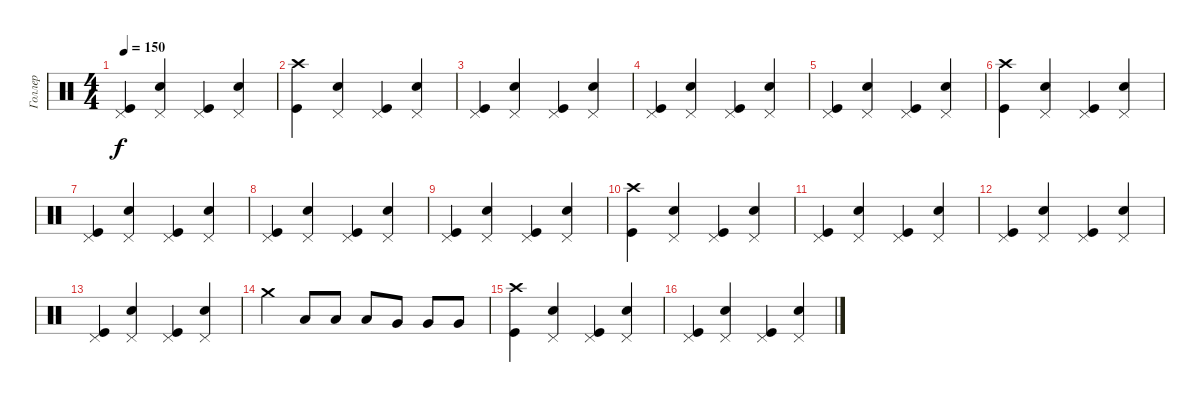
\track ("Голлер" "Голлер") {instrument percussion}
\staff {score}
\articulation defaults
\ts (4 4)
\tempo 150
\clef neutral
\ks c
("Pedal Hi-Hat (hit)" "Kick (hit)").4{dy f} ("Pedal Hi-Hat (hit)" "Snare (hit) 2").4 ("Pedal Hi-Hat (hit)" "Kick (hit)").4 ("Pedal Hi-Hat (hit)" "Snare (hit) 2").4 |
("Crash high (hit)" "Kick (hit)").4 ("Pedal Hi-Hat (hit)" "Snare (hit) 2").4 ("Pedal Hi-Hat (hit)" "Kick (hit)").4 ("Pedal Hi-Hat (hit)" "Snare (hit) 2").4 |
("Pedal Hi-Hat (hit)" "Kick (hit)").4 ("Pedal Hi-Hat (hit)" "Snare (hit) 2").4 ("Pedal Hi-Hat (hit)" "Kick (hit)").4 ("Pedal Hi-Hat (hit)" "Snare (hit) 2").4 |
("Pedal Hi-Hat (hit)" "Kick (hit)").4 ("Pedal Hi-Hat (hit)" "Snare (hit) 2").4 ("Pedal Hi-Hat (hit)" "Kick (hit)").4 ("Pedal Hi-Hat (hit)" "Snare (hit) 2").4 |
("Pedal Hi-Hat (hit)" "Kick (hit)").4 ("Pedal Hi-Hat (hit)" "Snare (hit) 2").4 ("Pedal Hi-Hat (hit)" "Kick (hit)").4 ("Pedal Hi-Hat (hit)" "Snare (hit) 2").4 |
("Crash high (hit)" "Kick (hit)").4 ("Pedal Hi-Hat (hit)" "Snare (hit) 2").4 ("Pedal Hi-Hat (hit)" "Kick (hit)").4 ("Pedal Hi-Hat (hit)" "Snare (hit) 2").4 |
("Pedal Hi-Hat (hit)" "Kick (hit)").4 ("Pedal Hi-Hat (hit)" "Snare (hit) 2").4 ("Pedal Hi-Hat (hit)" "Kick (hit)").4 ("Pedal Hi-Hat (hit)" "Snare (hit) 2").4 |
("Pedal Hi-Hat (hit)" "Kick (hit)").4 ("Pedal Hi-Hat (hit)" "Snare (hit) 2").4 ("Pedal Hi-Hat (hit)" "Kick (hit)").4 ("Pedal Hi-Hat (hit)" "Snare (hit) 2").4 |
("Pedal Hi-Hat (hit)" "Kick (hit)").4 ("Pedal Hi-Hat (hit)" "Snare (hit) 2").4 ("Pedal Hi-Hat (hit)" "Kick (hit)").4 ("Pedal Hi-Hat (hit)" "Snare (hit) 2").4 |
("Crash high (hit)" "Kick (hit)").4 ("Pedal Hi-Hat (hit)" "Snare (hit) 2").4 ("Pedal Hi-Hat (hit)" "Kick (hit)").4 ("Pedal Hi-Hat (hit)" "Snare (hit) 2").4 |
("Pedal Hi-Hat (hit)" "Kick (hit)").4 ("Pedal Hi-Hat (hit)" "Snare (hit) 2").4 ("Pedal Hi-Hat (hit)" "Kick (hit)").4 ("Pedal Hi-Hat (hit)" "Snare (hit) 2").4 |
("Pedal Hi-Hat (hit)" "Kick (hit)").4 ("Pedal Hi-Hat (hit)" "Snare (hit) 2").4 ("Pedal Hi-Hat (hit)" "Kick (hit)").4 ("Pedal Hi-Hat (hit)" "Snare (hit) 2").4 |
("Pedal Hi-Hat (hit)" "Kick (hit)").4 ("Pedal Hi-Hat (hit)" "Snare (hit) 2").4 ("Pedal Hi-Hat (hit)" "Kick (hit)").4 ("Pedal Hi-Hat (hit)" "Snare (hit) 2").4 |
"Crash medium (hit)".4 "Low Floor Tom (hit)".8 "Low Floor Tom (hit)".8 "Low Floor Tom (hit)".8 "Very Low Tom (hit)".8 "Very Low Tom (hit)".8 "Very Low Tom (hit)".8 |
("Crash high (hit)" "Kick (hit)").4 ("Pedal Hi-Hat (hit)" "Snare (hit) 2").4 ("Pedal Hi-Hat (hit)" "Kick (hit)").4 ("Pedal Hi-Hat (hit)" "Snare (hit) 2").4 |
("Pedal Hi-Hat (hit)" "Kick (hit)").4 ("Pedal Hi-Hat (hit)" "Snare (hit) 2").4 ("Pedal Hi-Hat (hit)" "Kick (hit)").4 ("Pedal Hi-Hat (hit)" "Snare (hit) 2").4
